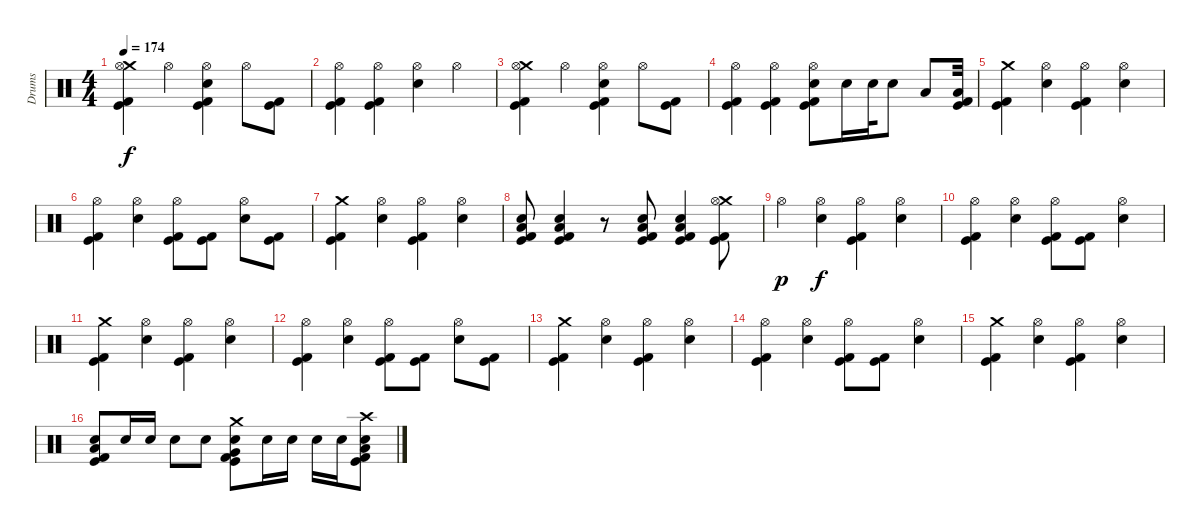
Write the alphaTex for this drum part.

\track ("Drums" "Drums") {instrument percussion}
\staff {score}
\articulation defaults
\ts (4 4)
\tempo 174
\clef neutral
\ks c
("Crash medium (hit)" "Hi-Hat (open)" "Kick (hit) 2" "Kick (hit)").4{dy f} "Hi-Hat (open)".4 ("Hi-Hat (open)" "Electric Snare (hit)" "Kick (hit) 2" "Kick (hit)").4 "Hi-Hat (open)".8 ("Kick (hit) 2" "Kick (hit)").8 |
("Hi-Hat (open)" "Kick (hit) 2" "Kick (hit)").4 ("Hi-Hat (open)" "Kick (hit) 2" "Kick (hit)").4 ("Hi-Hat (open)" "Electric Snare (hit)").4 "Hi-Hat (open)".4 |
("Crash medium (hit)" "Hi-Hat (open)" "Kick (hit) 2" "Kick (hit)").4 "Hi-Hat (open)".4 ("Hi-Hat (open)" "Electric Snare (hit)" "Kick (hit) 2" "Kick (hit)").4 "Hi-Hat (open)".8 ("Kick (hit) 2" "Kick (hit)").8 |
("Hi-Hat (open)" "Kick (hit) 2" "Kick (hit)").4 ("Hi-Hat (open)" "Kick (hit) 2" "Kick (hit)").4 ("Hi-Hat (open)" "Electric Snare (hit)" "Kick (hit) 2" "Kick (hit)").8 "Electric Snare (hit)".16 "Electric Snare (hit)".32 "Electric Snare (hit)".8 "Low Tom (hit)".8 ("Low Floor Tom (hit)" "Kick (hit) 2" "Kick (hit)").32 |
("Crash medium (hit)" "Kick (hit) 2" "Kick (hit)").4 ("Hi-Hat (open)" "Electric Snare (hit)").4 ("Hi-Hat (open)" "Kick (hit) 2" "Kick (hit)").4 ("Hi-Hat (open)" "Electric Snare (hit)").4 |
("Hi-Hat (open)" "Kick (hit) 2" "Kick (hit)").4 ("Hi-Hat (open)" "Electric Snare (hit)").4 ("Hi-Hat (open)" "Kick (hit) 2" "Kick (hit)").8 ("Kick (hit) 2" "Kick (hit)").8 ("Hi-Hat (open)" "Electric Snare (hit)").8 ("Kick (hit) 2" "Kick (hit)").8 |
("Crash medium (hit)" "Kick (hit) 2" "Kick (hit)").4 ("Hi-Hat (open)" "Electric Snare (hit)").4 ("Hi-Hat (open)" "Kick (hit) 2" "Kick (hit)").4 ("Hi-Hat (open)" "Electric Snare (hit)").4 |
("Electric Snare (hit)" "Low Tom (hit)" "Kick (hit) 2" "Kick (hit)").8 ("Electric Snare (hit)" "Low Tom (hit)" "Kick (hit) 2" "Kick (hit)").4 r.8 ("Electric Snare (hit)" "Low Tom (hit)" "Kick (hit) 2" "Kick (hit)").8 ("Electric Snare (hit)" "Low Tom (hit)" "Kick (hit) 2" "Kick (hit)").4 ("Crash medium (hit)" "Hi-Hat (open)" "Kick (hit) 2" "Kick (hit)").8 |
"Hi-Hat (open)".4{dy p} ("Hi-Hat (open)" "Electric Snare (hit)").4{dy f} ("Hi-Hat (open)" "Kick (hit) 2" "Kick (hit)").4 ("Hi-Hat (open)" "Electric Snare (hit)").4 |
("Hi-Hat (open)" "Kick (hit) 2" "Kick (hit)").4 ("Hi-Hat (open)" "Electric Snare (hit)").4 ("Hi-Hat (open)" "Kick (hit) 2" "Kick (hit)").8 ("Kick (hit) 2" "Kick (hit)").8 ("Hi-Hat (open)" "Electric Snare (hit)").4 |
("Crash medium (hit)" "Kick (hit) 2" "Kick (hit)").4 ("Hi-Hat (open)" "Electric Snare (hit)").4 ("Hi-Hat (open)" "Kick (hit) 2" "Kick (hit)").4 ("Hi-Hat (open)" "Electric Snare (hit)").4 |
("Hi-Hat (open)" "Kick (hit) 2" "Kick (hit)").4 ("Hi-Hat (open)" "Electric Snare (hit)").4 ("Hi-Hat (open)" "Kick (hit) 2" "Kick (hit)").8 ("Kick (hit) 2" "Kick (hit)").8 ("Hi-Hat (open)" "Electric Snare (hit)").8 ("Kick (hit) 2" "Kick (hit)").8 |
("Crash medium (hit)" "Kick (hit) 2" "Kick (hit)").4 ("Hi-Hat (open)" "Electric Snare (hit)").4 ("Hi-Hat (open)" "Kick (hit) 2" "Kick (hit)").4 ("Hi-Hat (open)" "Electric Snare (hit)").4 |
("Hi-Hat (open)" "Kick (hit) 2" "Kick (hit)").4 ("Hi-Hat (open)" "Electric Snare (hit)").4 ("Hi-Hat (open)" "Kick (hit) 2" "Kick (hit)").8 ("Kick (hit) 2" "Kick (hit)").8 ("Hi-Hat (open)" "Electric Snare (hit)").4 |
("Crash medium (hit)" "Kick (hit) 2" "Kick (hit)").4 ("Hi-Hat (open)" "Electric Snare (hit)").4 ("Hi-Hat (open)" "Kick (hit) 2" "Kick (hit)").4 ("Hi-Hat (open)" "Electric Snare (hit)").4 |
("Electric Snare (hit)" "Low Tom (hit)" "Kick (hit) 2" "Kick (hit)").8 "Electric Snare (hit)".16 "Electric Snare (hit)".16 "Electric Snare (hit)".8 "Electric Snare (hit)".8 ("Crash medium (hit)" "Electric Snare (hit)" "Very Low Tom (hit)" "Kick (hit) 2" "Kick (hit)").8 "Electric Snare (hit)".16 "Electric Snare (hit)".16 "Electric Snare (hit)".16 "Electric Snare (hit)".16 ("Crash high (hit)" "Electric Snare (hit)" "Low Floor Tom (hit)" "Kick (hit) 2" "Kick (hit)").8
